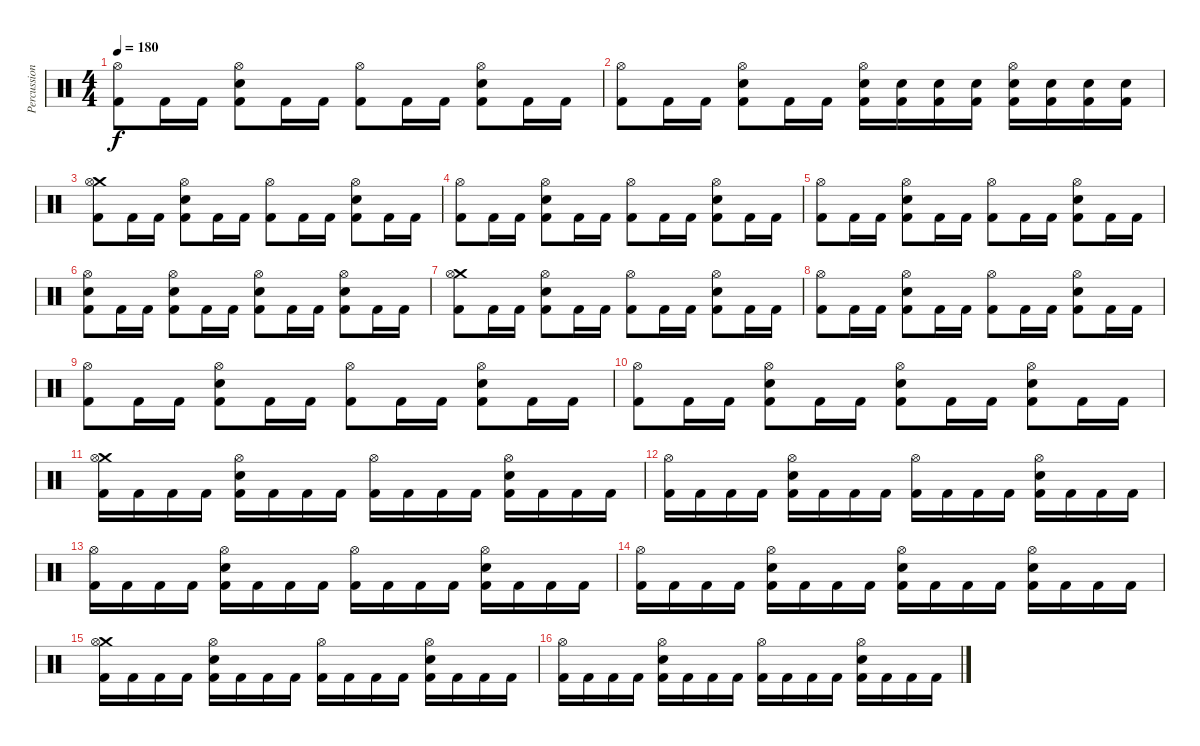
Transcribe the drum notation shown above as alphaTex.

\track ("Percussion" "Percussion") {instrument percussion}
\staff {score}
\articulation defaults
\ts (4 4)
\tempo 180
\clef neutral
\ks c
("Hi-Hat (open)" "Kick (hit) 2").8{dy f} "Kick (hit) 2".16 "Kick (hit) 2".16 ("Hi-Hat (open)" "Electric Snare (hit)" "Kick (hit) 2").8 "Kick (hit) 2".16 "Kick (hit) 2".16 ("Hi-Hat (open)" "Kick (hit) 2").8 "Kick (hit) 2".16 "Kick (hit) 2".16 ("Hi-Hat (open)" "Electric Snare (hit)" "Kick (hit) 2").8 "Kick (hit) 2".16 "Kick (hit) 2".16 |
("Hi-Hat (open)" "Kick (hit) 2").8 "Kick (hit) 2".16 "Kick (hit) 2".16 ("Hi-Hat (open)" "Electric Snare (hit)" "Kick (hit) 2").8 "Kick (hit) 2".16 "Kick (hit) 2".16 ("Hi-Hat (open)" "Electric Snare (hit)" "Kick (hit) 2").16 ("Electric Snare (hit)" "Kick (hit) 2").16 ("Electric Snare (hit)" "Kick (hit) 2").16 ("Electric Snare (hit)" "Kick (hit) 2").16 ("Hi-Hat (open)" "Electric Snare (hit)" "Kick (hit) 2").16 ("Electric Snare (hit)" "Kick (hit) 2").16 ("Electric Snare (hit)" "Kick (hit) 2").16 ("Electric Snare (hit)" "Kick (hit) 2").16 |
("Crash medium (hit)" "Hi-Hat (open)" "Kick (hit) 2").8 "Kick (hit) 2".16 "Kick (hit) 2".16 ("Hi-Hat (open)" "Electric Snare (hit)" "Kick (hit) 2").8 "Kick (hit) 2".16 "Kick (hit) 2".16 ("Hi-Hat (open)" "Kick (hit) 2").8 "Kick (hit) 2".16 "Kick (hit) 2".16 ("Hi-Hat (open)" "Electric Snare (hit)" "Kick (hit) 2").8 "Kick (hit) 2".16 "Kick (hit) 2".16 |
("Hi-Hat (open)" "Kick (hit) 2").8 "Kick (hit) 2".16 "Kick (hit) 2".16 ("Hi-Hat (open)" "Electric Snare (hit)" "Kick (hit) 2").8 "Kick (hit) 2".16 "Kick (hit) 2".16 ("Hi-Hat (open)" "Kick (hit) 2").8 "Kick (hit) 2".16 "Kick (hit) 2".16 ("Hi-Hat (open)" "Electric Snare (hit)" "Kick (hit) 2").8 "Kick (hit) 2".16 "Kick (hit) 2".16 |
("Hi-Hat (open)" "Kick (hit) 2").8 "Kick (hit) 2".16 "Kick (hit) 2".16 ("Hi-Hat (open)" "Electric Snare (hit)" "Kick (hit) 2").8 "Kick (hit) 2".16 "Kick (hit) 2".16 ("Hi-Hat (open)" "Kick (hit) 2").8 "Kick (hit) 2".16 "Kick (hit) 2".16 ("Hi-Hat (open)" "Electric Snare (hit)" "Kick (hit) 2").8 "Kick (hit) 2".16 "Kick (hit) 2".16 |
("Hi-Hat (open)" "Electric Snare (hit)" "Kick (hit) 2").8 "Kick (hit) 2".16 "Kick (hit) 2".16 ("Hi-Hat (open)" "Electric Snare (hit)" "Kick (hit) 2").8 "Kick (hit) 2".16 "Kick (hit) 2".16 ("Hi-Hat (open)" "Electric Snare (hit)" "Kick (hit) 2").8 "Kick (hit) 2".16 "Kick (hit) 2".16 ("Hi-Hat (open)" "Electric Snare (hit)" "Kick (hit) 2").8 "Kick (hit) 2".16 "Kick (hit) 2".16 |
("Crash medium (hit)" "Hi-Hat (open)" "Kick (hit) 2").8 "Kick (hit) 2".16 "Kick (hit) 2".16 ("Hi-Hat (open)" "Electric Snare (hit)" "Kick (hit) 2").8 "Kick (hit) 2".16 "Kick (hit) 2".16 ("Hi-Hat (open)" "Kick (hit) 2").8 "Kick (hit) 2".16 "Kick (hit) 2".16 ("Hi-Hat (open)" "Electric Snare (hit)" "Kick (hit) 2").8 "Kick (hit) 2".16 "Kick (hit) 2".16 |
("Hi-Hat (open)" "Kick (hit) 2").8 "Kick (hit) 2".16 "Kick (hit) 2".16 ("Hi-Hat (open)" "Electric Snare (hit)" "Kick (hit) 2").8 "Kick (hit) 2".16 "Kick (hit) 2".16 ("Hi-Hat (open)" "Kick (hit) 2").8 "Kick (hit) 2".16 "Kick (hit) 2".16 ("Hi-Hat (open)" "Electric Snare (hit)" "Kick (hit) 2").8 "Kick (hit) 2".16 "Kick (hit) 2".16 |
("Hi-Hat (open)" "Kick (hit) 2").8 "Kick (hit) 2".16 "Kick (hit) 2".16 ("Hi-Hat (open)" "Electric Snare (hit)" "Kick (hit) 2").8 "Kick (hit) 2".16 "Kick (hit) 2".16 ("Hi-Hat (open)" "Kick (hit) 2").8 "Kick (hit) 2".16 "Kick (hit) 2".16 ("Hi-Hat (open)" "Electric Snare (hit)" "Kick (hit) 2").8 "Kick (hit) 2".16 "Kick (hit) 2".16 |
("Hi-Hat (open)" "Kick (hit) 2").8 "Kick (hit) 2".16 "Kick (hit) 2".16 ("Hi-Hat (open)" "Electric Snare (hit)" "Kick (hit) 2").8 "Kick (hit) 2".16 "Kick (hit) 2".16 ("Hi-Hat (open)" "Electric Snare (hit)" "Kick (hit) 2").8 "Kick (hit) 2".16 "Kick (hit) 2".16 ("Hi-Hat (open)" "Electric Snare (hit)" "Kick (hit) 2").8 "Kick (hit) 2".16 "Kick (hit) 2".16 |
("Crash medium (hit)" "Hi-Hat (open)" "Kick (hit) 2").16 "Kick (hit) 2".16 "Kick (hit) 2".16 "Kick (hit) 2".16 ("Hi-Hat (open)" "Electric Snare (hit)" "Kick (hit) 2").16 "Kick (hit) 2".16 "Kick (hit) 2".16 "Kick (hit) 2".16 ("Hi-Hat (open)" "Kick (hit) 2").16 "Kick (hit) 2".16 "Kick (hit) 2".16 "Kick (hit) 2".16 ("Hi-Hat (open)" "Electric Snare (hit)" "Kick (hit) 2").16 "Kick (hit) 2".16 "Kick (hit) 2".16 "Kick (hit) 2".16 |
("Hi-Hat (open)" "Kick (hit) 2").16 "Kick (hit) 2".16 "Kick (hit) 2".16 "Kick (hit) 2".16 ("Hi-Hat (open)" "Electric Snare (hit)" "Kick (hit) 2").16 "Kick (hit) 2".16 "Kick (hit) 2".16 "Kick (hit) 2".16 ("Hi-Hat (open)" "Kick (hit) 2").16 "Kick (hit) 2".16 "Kick (hit) 2".16 "Kick (hit) 2".16 ("Hi-Hat (open)" "Electric Snare (hit)" "Kick (hit) 2").16 "Kick (hit) 2".16 "Kick (hit) 2".16 "Kick (hit) 2".16 |
("Hi-Hat (open)" "Kick (hit) 2").16 "Kick (hit) 2".16 "Kick (hit) 2".16 "Kick (hit) 2".16 ("Hi-Hat (open)" "Electric Snare (hit)" "Kick (hit) 2").16 "Kick (hit) 2".16 "Kick (hit) 2".16 "Kick (hit) 2".16 ("Hi-Hat (open)" "Kick (hit) 2").16 "Kick (hit) 2".16 "Kick (hit) 2".16 "Kick (hit) 2".16 ("Hi-Hat (open)" "Electric Snare (hit)" "Kick (hit) 2").16 "Kick (hit) 2".16 "Kick (hit) 2".16 "Kick (hit) 2".16 |
("Hi-Hat (open)" "Kick (hit) 2").16 "Kick (hit) 2".16 "Kick (hit) 2".16 "Kick (hit) 2".16 ("Hi-Hat (open)" "Electric Snare (hit)" "Kick (hit) 2").16 "Kick (hit) 2".16 "Kick (hit) 2".16 "Kick (hit) 2".16 ("Hi-Hat (open)" "Electric Snare (hit)" "Kick (hit) 2").16 "Kick (hit) 2".16 "Kick (hit) 2".16 "Kick (hit) 2".16 ("Hi-Hat (open)" "Electric Snare (hit)" "Kick (hit) 2").16 "Kick (hit) 2".16 "Kick (hit) 2".16 "Kick (hit) 2".16 |
("Crash medium (hit)" "Hi-Hat (open)" "Kick (hit) 2").16 "Kick (hit) 2".16 "Kick (hit) 2".16 "Kick (hit) 2".16 ("Hi-Hat (open)" "Electric Snare (hit)" "Kick (hit) 2").16 "Kick (hit) 2".16 "Kick (hit) 2".16 "Kick (hit) 2".16 ("Hi-Hat (open)" "Kick (hit) 2").16 "Kick (hit) 2".16 "Kick (hit) 2".16 "Kick (hit) 2".16 ("Hi-Hat (open)" "Electric Snare (hit)" "Kick (hit) 2").16 "Kick (hit) 2".16 "Kick (hit) 2".16 "Kick (hit) 2".16 |
("Hi-Hat (open)" "Kick (hit) 2").16 "Kick (hit) 2".16 "Kick (hit) 2".16 "Kick (hit) 2".16 ("Hi-Hat (open)" "Electric Snare (hit)" "Kick (hit) 2").16 "Kick (hit) 2".16 "Kick (hit) 2".16 "Kick (hit) 2".16 ("Hi-Hat (open)" "Kick (hit) 2").16 "Kick (hit) 2".16 "Kick (hit) 2".16 "Kick (hit) 2".16 ("Hi-Hat (open)" "Electric Snare (hit)" "Kick (hit) 2").16 "Kick (hit) 2".16 "Kick (hit) 2".16 "Kick (hit) 2".16
